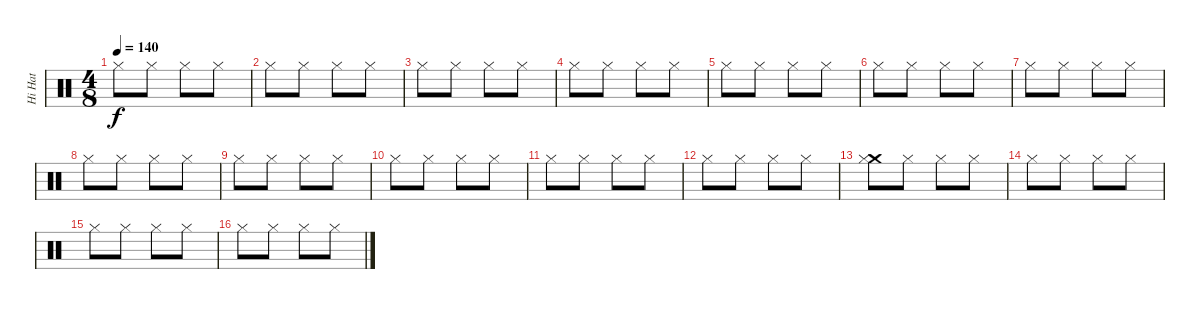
\track ("Hi Hat" "Hi Hat") {instrument percussion}
\staff {score}
\articulation defaults
\ts (4 8)
\tempo 140
\clef neutral
\ks c "Hi-Hat (closed)".8{dy f} "Hi-Hat (closed)".8 "Hi-Hat (closed)".8 "Hi-Hat (closed)".8
|
"Hi-Hat (closed)".8 "Hi-Hat (closed)".8 "Hi-Hat (closed)".8 "Hi-Hat (closed)".8 |
"Hi-Hat (closed)".8 "Hi-Hat (closed)".8 "Hi-Hat (closed)".8 "Hi-Hat (closed)".8 |
"Hi-Hat (closed)".8 "Hi-Hat (closed)".8 "Hi-Hat (closed)".8 "Hi-Hat (closed)".8 |
"Hi-Hat (closed)".8 "Hi-Hat (closed)".8 "Hi-Hat (closed)".8 "Hi-Hat (closed)".8 |
"Hi-Hat (closed)".8 "Hi-Hat (closed)".8 "Hi-Hat (closed)".8 "Hi-Hat (closed)".8 |
"Hi-Hat (closed)".8 "Hi-Hat (closed)".8 "Hi-Hat (closed)".8 "Hi-Hat (closed)".8 |
"Hi-Hat (closed)".8 "Hi-Hat (closed)".8 "Hi-Hat (closed)".8 "Hi-Hat (closed)".8 |
"Hi-Hat (closed)".8 "Hi-Hat (closed)".8 "Hi-Hat (closed)".8 "Hi-Hat (closed)".8 |
"Hi-Hat (closed)".8 "Hi-Hat (closed)".8 "Hi-Hat (closed)".8 "Hi-Hat (closed)".8 |
"Hi-Hat (closed)".8 "Hi-Hat (closed)".8 "Hi-Hat (closed)".8 "Hi-Hat (closed)".8 |
"Hi-Hat (closed)".8 "Hi-Hat (closed)".8 "Hi-Hat (closed)".8 "Hi-Hat (closed)".8 |
("Crash medium (hit)" "Hi-Hat (closed)").8 "Hi-Hat (closed)".8 "Hi-Hat (closed)".8 "Hi-Hat (closed)".8 |
"Hi-Hat (closed)".8 "Hi-Hat (closed)".8 "Hi-Hat (closed)".8 "Hi-Hat (closed)".8 |
"Hi-Hat (closed)".8 "Hi-Hat (closed)".8 "Hi-Hat (closed)".8 "Hi-Hat (closed)".8 |
"Hi-Hat (closed)".8 "Hi-Hat (closed)".8 "Hi-Hat (closed)".8 "Hi-Hat (closed)".8
